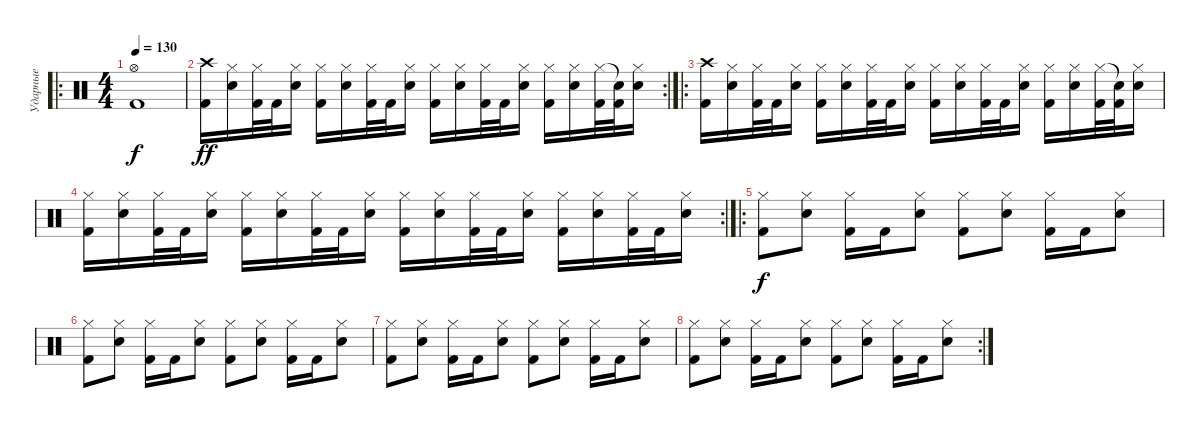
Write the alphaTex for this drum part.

\track ("Ударные" "Ударные") {instrument percussion}
\staff {score}
\articulation defaults
\ro
\ts (4 4)
\tempo 130
\clef neutral
\ks c
("Hi-Hat (open)" "Kick (hit) 2").1{dy f} |
\rc 2
("Crash high (hit)" "Kick (hit) 2").16{dy ff} ("Hi-Hat (closed)" "Electric Snare (hit)").16 ("Hi-Hat (closed)" "Kick (hit) 2").32 "Kick (hit) 2".32 ("Hi-Hat (closed)" "Electric Snare (hit)").16 ("Hi-Hat (closed)" "Kick (hit) 2").16 ("Hi-Hat (closed)" "Electric Snare (hit)").16 ("Hi-Hat (closed)" "Kick (hit) 2").32 "Kick (hit) 2".32 ("Hi-Hat (closed)" "Electric Snare (hit)").16 ("Hi-Hat (closed)" "Kick (hit) 2").16 ("Hi-Hat (closed)" "Electric Snare (hit)").16 ("Hi-Hat (closed)" "Kick (hit) 2").32 "Kick (hit) 2".32 ("Hi-Hat (closed)" "Electric Snare (hit)").16 ("Hi-Hat (closed)" "Kick (hit) 2").16 ("Hi-Hat (closed)" "Electric Snare (hit)").16 ("Hi-Hat (closed)" "Kick (hit) 2").32 ("Snare (hit)"{t} "Kick (hit) 2").32 ("Hi-Hat (closed)" "Electric Snare (hit)").16 |
\ro
("Crash high (hit)" "Kick (hit) 2").16 ("Hi-Hat (closed)" "Electric Snare (hit)").16 ("Hi-Hat (closed)" "Kick (hit) 2").32 "Kick (hit) 2".32 ("Hi-Hat (closed)" "Electric Snare (hit)").16 ("Hi-Hat (closed)" "Kick (hit) 2").16 ("Hi-Hat (closed)" "Electric Snare (hit)").16 ("Hi-Hat (closed)" "Kick (hit) 2").32 "Kick (hit) 2".32 ("Hi-Hat (closed)" "Electric Snare (hit)").16 ("Hi-Hat (closed)" "Kick (hit) 2").16 ("Hi-Hat (closed)" "Electric Snare (hit)").16 ("Hi-Hat (closed)" "Kick (hit) 2").32 "Kick (hit) 2".32 ("Hi-Hat (closed)" "Electric Snare (hit)").16 ("Hi-Hat (closed)" "Kick (hit) 2").16 ("Hi-Hat (closed)" "Electric Snare (hit)").16 ("Hi-Hat (closed)" "Kick (hit) 2").32 ("Snare (hit)"{t} "Kick (hit) 2").32 ("Hi-Hat (closed)" "Electric Snare (hit)").16 |
\rc 2
("Hi-Hat (closed)" "Kick (hit) 2").16 ("Hi-Hat (closed)" "Electric Snare (hit)").16 ("Hi-Hat (closed)" "Kick (hit) 2").32 "Kick (hit) 2".32 ("Hi-Hat (closed)" "Electric Snare (hit)").16 ("Hi-Hat (closed)" "Kick (hit) 2").16 ("Hi-Hat (closed)" "Electric Snare (hit)").16 ("Hi-Hat (closed)" "Kick (hit) 2").32 "Kick (hit) 2".32 ("Hi-Hat (closed)" "Electric Snare (hit)").16 ("Hi-Hat (closed)" "Kick (hit) 2").16 ("Hi-Hat (closed)" "Electric Snare (hit)").16 ("Hi-Hat (closed)" "Kick (hit) 2").32 "Kick (hit) 2".32 ("Hi-Hat (closed)" "Electric Snare (hit)").16 ("Hi-Hat (closed)" "Kick (hit) 2").16 ("Hi-Hat (closed)" "Electric Snare (hit)").16 ("Hi-Hat (closed)" "Kick (hit) 2").32 "Kick (hit) 2".32 ("Hi-Hat (closed)" "Electric Snare (hit)").16 |
\ro
("Hi-Hat (closed)" "Kick (hit) 2").8{dy f} ("Hi-Hat (closed)" "Electric Snare (hit)").8 ("Hi-Hat (closed)" "Kick (hit) 2").16 "Kick (hit) 2".16 ("Hi-Hat (closed)" "Electric Snare (hit)").8 ("Hi-Hat (closed)" "Kick (hit) 2").8 ("Hi-Hat (closed)" "Electric Snare (hit)").8 ("Hi-Hat (closed)" "Kick (hit) 2").16 "Kick (hit) 2".16 ("Hi-Hat (closed)" "Electric Snare (hit)").8 |
("Hi-Hat (closed)" "Kick (hit) 2").8 ("Hi-Hat (closed)" "Electric Snare (hit)").8 ("Hi-Hat (closed)" "Kick (hit) 2").16 "Kick (hit) 2".16 ("Hi-Hat (closed)" "Electric Snare (hit)").8 ("Hi-Hat (closed)" "Kick (hit) 2").8 ("Hi-Hat (closed)" "Electric Snare (hit)").8 ("Hi-Hat (closed)" "Kick (hit) 2").16 "Kick (hit) 2".16 ("Hi-Hat (closed)" "Electric Snare (hit)").8 |
("Hi-Hat (closed)" "Kick (hit) 2").8 ("Hi-Hat (closed)" "Electric Snare (hit)").8 ("Hi-Hat (closed)" "Kick (hit) 2").16 "Kick (hit) 2".16 ("Hi-Hat (closed)" "Electric Snare (hit)").8 ("Hi-Hat (closed)" "Kick (hit) 2").8 ("Hi-Hat (closed)" "Electric Snare (hit)").8 ("Hi-Hat (closed)" "Kick (hit) 2").16 "Kick (hit) 2".16 ("Hi-Hat (closed)" "Electric Snare (hit)").8 |
\rc 2
("Hi-Hat (closed)" "Kick (hit) 2").8 ("Hi-Hat (closed)" "Electric Snare (hit)").8 ("Hi-Hat (closed)" "Kick (hit) 2").16 "Kick (hit) 2".16 ("Hi-Hat (closed)" "Electric Snare (hit)").8 ("Hi-Hat (closed)" "Kick (hit) 2").8 ("Hi-Hat (closed)" "Electric Snare (hit)").8 ("Hi-Hat (closed)" "Kick (hit) 2").16 "Kick (hit) 2".16 ("Hi-Hat (closed)" "Electric Snare (hit)").8
